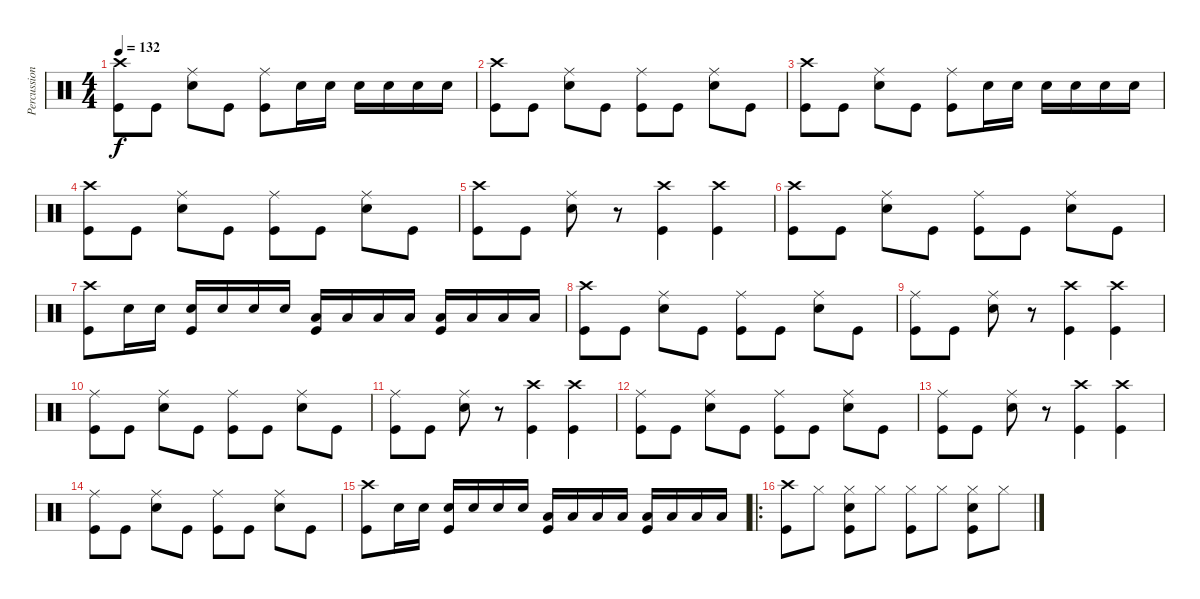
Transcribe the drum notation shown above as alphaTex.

\track ("Percussioni" "Percussion") {instrument percussion}
\staff {score}
\articulation defaults
\ts (4 4)
\tempo 132
\clef neutral
\ks c
("Crash high (hit)" "Kick (hit)").8{dy f} "Kick (hit)".8 ("Ride (middle)" "Snare (hit) 2").8 "Kick (hit)".8 ("Ride (middle)" "Kick (hit)").8 "Snare (hit) 2".16 "Snare (hit) 2".16 "Snare (hit) 2".16 "Snare (hit) 2".16 "Snare (hit) 2".16 "Snare (hit) 2".16 |
("Crash high (hit)" "Kick (hit)").8 "Kick (hit)".8 ("Ride (middle)" "Snare (hit) 2").8 "Kick (hit)".8 ("Ride (middle)" "Kick (hit)").8 "Kick (hit)".8 ("Ride (middle)" "Snare (hit) 2").8 "Kick (hit)".8 |
("Crash high (hit)" "Kick (hit)").8 "Kick (hit)".8 ("Ride (middle)" "Snare (hit) 2").8 "Kick (hit)".8 ("Ride (middle)" "Kick (hit)").8 "Snare (hit) 2".16 "Snare (hit) 2".16 "Snare (hit) 2".16 "Snare (hit) 2".16 "Snare (hit) 2".16 "Snare (hit) 2".16 |
("Crash high (hit)" "Kick (hit)").8 "Kick (hit)".8 ("Ride (middle)" "Snare (hit) 2").8 "Kick (hit)".8 ("Ride (middle)" "Kick (hit)").8 "Kick (hit)".8 ("Ride (middle)" "Snare (hit) 2").8 "Kick (hit)".8 |
("Crash high (hit)" "Kick (hit)").8 "Kick (hit)".8 ("Ride (middle)" "Snare (hit) 2").8 r.8 ("Crash high (hit)" "Kick (hit)").4 ("Crash high (hit)" "Kick (hit)").4 |
("Crash high (hit)" "Kick (hit)").8 "Kick (hit)".8 ("Ride (middle)" "Snare (hit) 2").8 "Kick (hit)".8 ("Ride (middle)" "Kick (hit)").8 "Kick (hit)".8 ("Ride (middle)" "Snare (hit) 2").8 "Kick (hit)".8 |
("Crash high (hit)" "Kick (hit)").8 "Snare (hit) 2".16 "Snare (hit) 2".16 ("Snare (hit) 2" "Kick (hit)").16 "Snare (hit) 2".16 "Snare (hit) 2".16 "Snare (hit) 2".16 ("Low Tom (hit)" "Kick (hit)").16 "Low Tom (hit)".16 "Low Tom (hit)".16 "Low Tom (hit)".16 ("Low Tom (hit)" "Kick (hit)").16 "Low Tom (hit)".16 "Low Tom (hit)".16 "Low Tom (hit)".16 |
("Crash high (hit)" "Kick (hit)").8 "Kick (hit)".8 ("Ride (middle)" "Snare (hit) 2").8 "Kick (hit)".8 ("Ride (middle)" "Kick (hit)").8 "Kick (hit)".8 ("Ride (middle)" "Snare (hit) 2").8 "Kick (hit)".8 |
("Ride (middle)" "Kick (hit)").8 "Kick (hit)".8 ("Ride (middle)" "Snare (hit) 2").8 r.8 ("Crash high (hit)" "Kick (hit)").4 ("Crash high (hit)" "Kick (hit)").4 |
("Ride (middle)" "Kick (hit)").8 "Kick (hit)".8 ("Ride (middle)" "Snare (hit) 2").8 "Kick (hit)".8 ("Ride (middle)" "Kick (hit)").8 "Kick (hit)".8 ("Ride (middle)" "Snare (hit) 2").8 "Kick (hit)".8 |
("Ride (middle)" "Kick (hit)").8 "Kick (hit)".8 ("Ride (middle)" "Snare (hit) 2").8 r.8 ("Crash high (hit)" "Kick (hit)").4 ("Crash high (hit)" "Kick (hit)").4 |
("Ride (middle)" "Kick (hit)").8 "Kick (hit)".8 ("Ride (middle)" "Snare (hit) 2").8 "Kick (hit)".8 ("Ride (middle)" "Kick (hit)").8 "Kick (hit)".8 ("Ride (middle)" "Snare (hit) 2").8 "Kick (hit)".8 |
("Ride (middle)" "Kick (hit)").8 "Kick (hit)".8 ("Ride (middle)" "Snare (hit) 2").8 r.8 ("Crash high (hit)" "Kick (hit)").4 ("Crash high (hit)" "Kick (hit)").4 |
("Ride (middle)" "Kick (hit)").8 "Kick (hit)".8 ("Ride (middle)" "Snare (hit) 2").8 "Kick (hit)".8 ("Ride (middle)" "Kick (hit)").8 "Kick (hit)".8 ("Ride (middle)" "Snare (hit) 2").8 "Kick (hit)".8 |
("Crash high (hit)" "Kick (hit)").8 "Snare (hit) 2".16 "Snare (hit) 2".16 ("Snare (hit) 2" "Kick (hit)").16 "Snare (hit) 2".16 "Snare (hit) 2".16 "Snare (hit) 2".16 ("Low Tom (hit)" "Kick (hit)").16 "Low Tom (hit)".16 "Low Tom (hit)".16 "Low Tom (hit)".16 ("Low Tom (hit)" "Kick (hit)").16 "Low Tom (hit)".16 "Low Tom (hit)".16 "Low Tom (hit)".16 |
\ro
("Crash high (hit)" "Kick (hit)").8 "Hi-Hat (closed)".8 ("Hi-Hat (closed)" "Snare (hit) 2" "Kick (hit)").8 "Hi-Hat (closed)".8 ("Hi-Hat (closed)" "Kick (hit)").8 "Hi-Hat (closed)".8 ("Hi-Hat (closed)" "Snare (hit) 2" "Kick (hit)").8 "Hi-Hat (closed)".8
